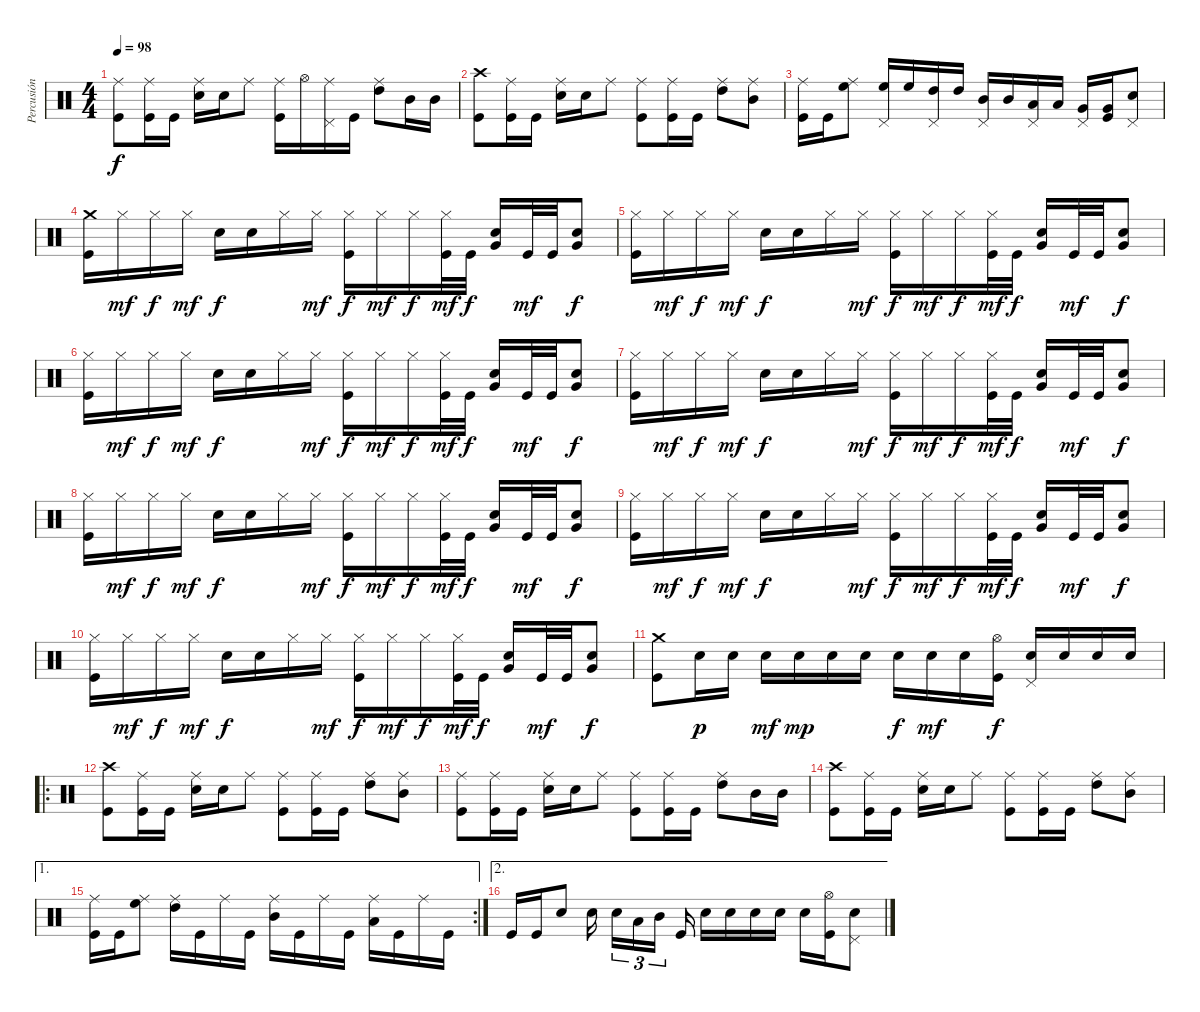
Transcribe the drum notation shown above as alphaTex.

\track ("Percusión" "Percusión") {instrument percussion}
\staff {score}
\articulation defaults
\ts (4 4)
\tempo 98
\clef neutral
\ks c
("Ride (middle)" "Kick (hit)").8{dy f} ("Ride (middle)" "Kick (hit)").16 "Kick (hit)".16 ("Ride (middle)" "Electric Snare (hit)").16 "Electric Snare (hit)".16 "Ride (middle)".8 ("Ride (middle)" "Kick (hit)").16 "Hi-Hat (open)".16 ("Ride (middle)" "Pedal Hi-Hat (hit)").16 "Kick (hit)".16 ("Ride (middle)" "High Tom (hit)").8 "Mid Tom (hit)".16 "Mid Tom (hit)".16 |
("Crash high (hit)" "Kick (hit)").8 ("Ride (middle)" "Kick (hit)").16 "Kick (hit)".16 ("Ride (middle)" "Electric Snare (hit)").16 "Electric Snare (hit)".16 "Ride (middle)".8 ("Ride (middle)" "Kick (hit)").8 ("Ride (middle)" "Kick (hit)").16 "Kick (hit)".16 ("Ride (middle)" "High Tom (hit)").8 ("Ride (middle)" "Mid Tom (hit)").8 |
("Ride (middle)" "Kick (hit)").16 "Kick (hit)".16 ("Ride (middle)" "High Floor Tom (hit)").8 ("High Floor Tom (hit)" "Pedal Hi-Hat (hit)").16 "High Floor Tom (hit)".16 ("High Tom (hit)" "Pedal Hi-Hat (hit)").16 "High Tom (hit)".16 ("Mid Tom (hit)" "Pedal Hi-Hat (hit)").16 "Mid Tom (hit)".16 ("Low Tom (hit)" "Pedal Hi-Hat (hit)").16 "Low Tom (hit)".16 ("Very Low Tom (hit)" "Pedal Hi-Hat (hit)").16 ("Very Low Tom (hit)" "Kick (hit)").16 ("Electric Snare (hit)" "Pedal Hi-Hat (hit)").8 |
("Crash medium (hit)" "Kick (hit)").16 "Hi-Hat (closed)".16{dy mf} "Hi-Hat (closed)".16{dy f} "Hi-Hat (closed)".16{dy mf} "Electric Snare (hit)".16{dy f} "Electric Snare (hit)".16 "Hi-Hat (closed)".16 "Hi-Hat (closed)".16{dy mf} ("Hi-Hat (closed)" "Kick (hit)").16{dy f} "Hi-Hat (closed)".16{dy mf} "Hi-Hat (closed)".16{dy f} ("Hi-Hat (closed)" "Kick (hit)").32{dy mf} "Kick (hit)".32{dy f} ("Electric Snare (hit)" "Very Low Tom (hit)").16 "Kick (hit)".32{dy mf} "Kick (hit)".32 ("Electric Snare (hit)" "Very Low Tom (hit)").8{dy f} |
("Hi-Hat (closed)" "Kick (hit)").16 "Hi-Hat (closed)".16{dy mf} "Hi-Hat (closed)".16{dy f} "Hi-Hat (closed)".16{dy mf} "Electric Snare (hit)".16{dy f} "Electric Snare (hit)".16 "Hi-Hat (closed)".16 "Hi-Hat (closed)".16{dy mf} ("Hi-Hat (closed)" "Kick (hit)").16{dy f} "Hi-Hat (closed)".16{dy mf} "Hi-Hat (closed)".16{dy f} ("Hi-Hat (closed)" "Kick (hit)").32{dy mf} "Kick (hit)".32{dy f} ("Electric Snare (hit)" "Very Low Tom (hit)").16 "Kick (hit)".32{dy mf} "Kick (hit)".32 ("Electric Snare (hit)" "Very Low Tom (hit)").8{dy f} |
("Hi-Hat (closed)" "Kick (hit)").16 "Hi-Hat (closed)".16{dy mf} "Hi-Hat (closed)".16{dy f} "Hi-Hat (closed)".16{dy mf} "Electric Snare (hit)".16{dy f} "Electric Snare (hit)".16 "Hi-Hat (closed)".16 "Hi-Hat (closed)".16{dy mf} ("Hi-Hat (closed)" "Kick (hit)").16{dy f} "Hi-Hat (closed)".16{dy mf} "Hi-Hat (closed)".16{dy f} ("Hi-Hat (closed)" "Kick (hit)").32{dy mf} "Kick (hit)".32{dy f} ("Electric Snare (hit)" "Very Low Tom (hit)").16 "Kick (hit)".32{dy mf} "Kick (hit)".32 ("Electric Snare (hit)" "Very Low Tom (hit)").8{dy f} |
("Hi-Hat (closed)" "Kick (hit)").16 "Hi-Hat (closed)".16{dy mf} "Hi-Hat (closed)".16{dy f} "Hi-Hat (closed)".16{dy mf} "Electric Snare (hit)".16{dy f} "Electric Snare (hit)".16 "Hi-Hat (closed)".16 "Hi-Hat (closed)".16{dy mf} ("Hi-Hat (closed)" "Kick (hit)").16{dy f} "Hi-Hat (closed)".16{dy mf} "Hi-Hat (closed)".16{dy f} ("Hi-Hat (closed)" "Kick (hit)").32{dy mf} "Kick (hit)".32{dy f} ("Electric Snare (hit)" "Very Low Tom (hit)").16 "Kick (hit)".32{dy mf} "Kick (hit)".32 ("Electric Snare (hit)" "Very Low Tom (hit)").8{dy f} |
("Hi-Hat (closed)" "Kick (hit)").16 "Hi-Hat (closed)".16{dy mf} "Hi-Hat (closed)".16{dy f} "Hi-Hat (closed)".16{dy mf} "Electric Snare (hit)".16{dy f} "Electric Snare (hit)".16 "Hi-Hat (closed)".16 "Hi-Hat (closed)".16{dy mf} ("Hi-Hat (closed)" "Kick (hit)").16{dy f} "Hi-Hat (closed)".16{dy mf} "Hi-Hat (closed)".16{dy f} ("Hi-Hat (closed)" "Kick (hit)").32{dy mf} "Kick (hit)".32{dy f} ("Electric Snare (hit)" "Very Low Tom (hit)").16 "Kick (hit)".32{dy mf} "Kick (hit)".32 ("Electric Snare (hit)" "Very Low Tom (hit)").8{dy f} |
("Hi-Hat (closed)" "Kick (hit)").16 "Hi-Hat (closed)".16{dy mf} "Hi-Hat (closed)".16{dy f} "Hi-Hat (closed)".16{dy mf} "Electric Snare (hit)".16{dy f} "Electric Snare (hit)".16 "Hi-Hat (closed)".16 "Hi-Hat (closed)".16{dy mf} ("Hi-Hat (closed)" "Kick (hit)").16{dy f} "Hi-Hat (closed)".16{dy mf} "Hi-Hat (closed)".16{dy f} ("Hi-Hat (closed)" "Kick (hit)").32{dy mf} "Kick (hit)".32{dy f} ("Electric Snare (hit)" "Very Low Tom (hit)").16 "Kick (hit)".32{dy mf} "Kick (hit)".32 ("Electric Snare (hit)" "Very Low Tom (hit)").8{dy f} |
("Hi-Hat (closed)" "Kick (hit)").16 "Hi-Hat (closed)".16{dy mf} "Hi-Hat (closed)".16{dy f} "Hi-Hat (closed)".16{dy mf} "Electric Snare (hit)".16{dy f} "Electric Snare (hit)".16 "Hi-Hat (closed)".16 "Hi-Hat (closed)".16{dy mf} ("Hi-Hat (closed)" "Kick (hit)").16{dy f} "Hi-Hat (closed)".16{dy mf} "Hi-Hat (closed)".16{dy f} ("Hi-Hat (closed)" "Kick (hit)").32{dy mf} "Kick (hit)".32{dy f} ("Electric Snare (hit)" "Very Low Tom (hit)").16 "Kick (hit)".32{dy mf} "Kick (hit)".32 ("Electric Snare (hit)" "Very Low Tom (hit)").8{dy f} |
("Crash medium (hit)" "Kick (hit)").8 "Electric Snare (hit)".16{dy p} "Electric Snare (hit)".16 "Electric Snare (hit)".16{dy mf} "Electric Snare (hit)".16{dy mp} "Electric Snare (hit)".16 "Electric Snare (hit)".16 "Electric Snare (hit)".16{dy f} "Electric Snare (hit)".16{dy mf} "Electric Snare (hit)".16 ("Hi-Hat (open)" "Kick (hit)").16{dy f} ("Electric Snare (hit)" "Pedal Hi-Hat (hit)").16 "Electric Snare (hit)".16 "Electric Snare (hit)".16 "Electric Snare (hit)".16 |
\ro
("Crash high (hit)" "Kick (hit)").8 ("Ride (middle)" "Kick (hit)").16 "Kick (hit)".16 ("Ride (middle)" "Electric Snare (hit)").16 "Electric Snare (hit)".16 "Ride (middle)".8 ("Ride (middle)" "Kick (hit)").8 ("Ride (middle)" "Kick (hit)").16 "Kick (hit)".16 ("Ride (middle)" "High Tom (hit)").8 ("Ride (middle)" "Mid Tom (hit)").8 |
("Ride (middle)" "Kick (hit)").8 ("Ride (middle)" "Kick (hit)").16 "Kick (hit)".16 ("Ride (middle)" "Electric Snare (hit)").16 "Electric Snare (hit)".16 "Ride (middle)".8 ("Ride (middle)" "Kick (hit)").8 ("Ride (middle)" "Kick (hit)").16 "Kick (hit)".16 ("Ride (middle)" "High Tom (hit)").8 "Mid Tom (hit)".16 "Mid Tom (hit)".16 |
("Crash high (hit)" "Kick (hit)").8 ("Ride (middle)" "Kick (hit)").16 "Kick (hit)".16 ("Ride (middle)" "Electric Snare (hit)").16 "Electric Snare (hit)".16 "Ride (middle)".8 ("Ride (middle)" "Kick (hit)").8 ("Ride (middle)" "Kick (hit)").16 "Kick (hit)".16 ("Ride (middle)" "High Tom (hit)").8 ("Ride (middle)" "Mid Tom (hit)").8 |
\ae 1
\rc 2
("Ride (middle)" "Kick (hit)").16 "Kick (hit)".16 ("Ride (middle)" "High Floor Tom (hit)").8 ("Ride (middle)" "High Tom (hit)").16 "Kick (hit)".16 "Ride (middle)".16 "Kick (hit)".16 ("Ride (middle)" "Mid Tom (hit)").16 "Kick (hit)".16 "Ride (middle)".16 "Kick (hit)".16 ("Ride (middle)" "Low Tom (hit)").16 "Kick (hit)".16 "Ride (middle)".16 "Kick (hit)".16 |
\ae 2 "Kick (hit)".16 "Kick (hit)".16 "Electric Snare (hit)".8 "Electric Snare (hit)".16{beam splitsecondary} "Electric Snare (hit)".16{tu (3 2)} "Low Tom (hit)".16{tu (3 2)} "Mid Tom (hit)".16{tu (3 2) beam splitsecondary} "Kick (hit)".16 "Electric Snare (hit)".16 "Electric Snare (hit)".16 "Electric Snare (hit)".16 "Electric Snare (hit)".16 "Electric Snare (hit)".16
("Hi-Hat (open)" "Kick (hit)").16 ("Electric Snare (hit)" "Pedal Hi-Hat (hit)").8
